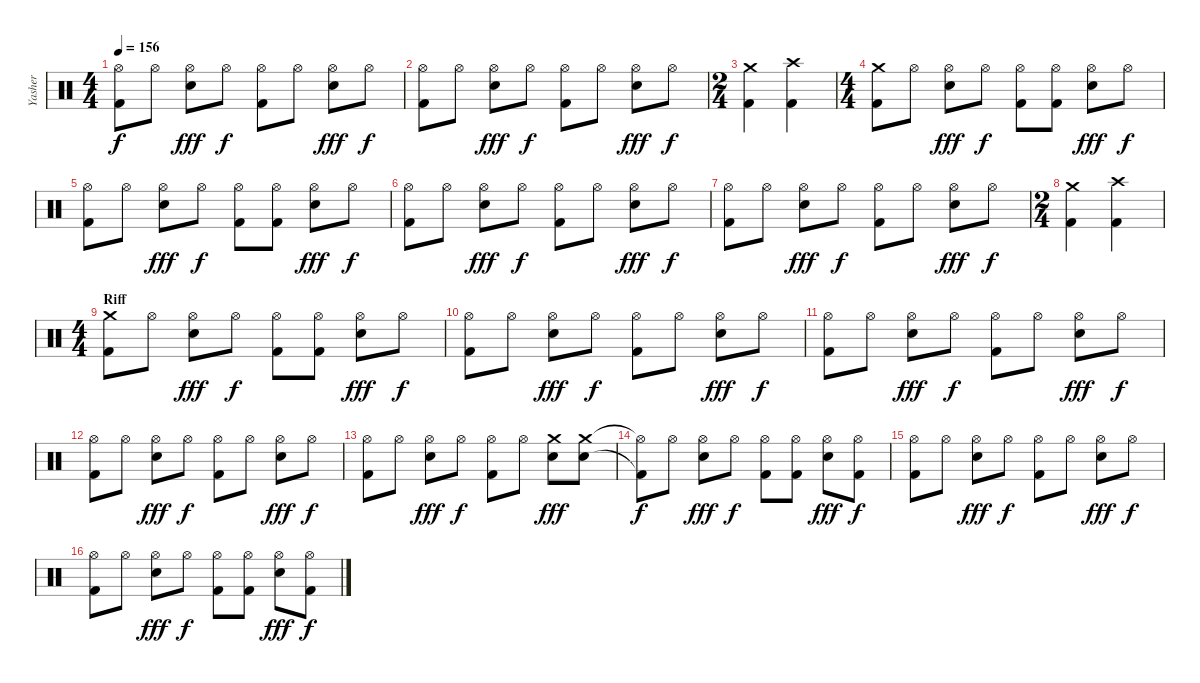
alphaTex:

\track ("Yasher" "Yasher") {instrument percussion}
\staff {score}
\articulation defaults
\ts (4 4)
\tempo 156
\clef neutral
\ks c
("Hi-Hat (open)" "Kick (hit) 2").8{dy f} "Hi-Hat (open)".8 ("Hi-Hat (open)" "Electric Snare (hit)").8{dy fff} "Hi-Hat (open)".8{dy f} ("Hi-Hat (open)" "Kick (hit) 2").8 "Hi-Hat (open)".8 ("Hi-Hat (open)" "Electric Snare (hit)").8{dy fff} "Hi-Hat (open)".8{dy f} |
("Hi-Hat (open)" "Kick (hit) 2").8 "Hi-Hat (open)".8 ("Hi-Hat (open)" "Electric Snare (hit)").8{dy fff} "Hi-Hat (open)".8{dy f} ("Hi-Hat (open)" "Kick (hit) 2").8 "Hi-Hat (open)".8 ("Hi-Hat (open)" "Electric Snare (hit)").8{dy fff} "Hi-Hat (open)".8{dy f} |
\ts (2 4)
("Crash medium (hit)" "Kick (hit) 2").4 ("Crash high (hit)" "Kick (hit) 2").4 |
\ts (4 4)
("Crash medium (hit)" "Kick (hit) 2").8 "Hi-Hat (open)".8 ("Hi-Hat (open)" "Electric Snare (hit)").8{dy fff} "Hi-Hat (open)".8{dy f} ("Hi-Hat (open)" "Kick (hit) 2").8 ("Hi-Hat (open)" "Kick (hit) 2").8 ("Hi-Hat (open)" "Electric Snare (hit)").8{dy fff} "Hi-Hat (open)".8{dy f} |
("Hi-Hat (open)" "Kick (hit) 2").8 "Hi-Hat (open)".8 ("Hi-Hat (open)" "Electric Snare (hit)").8{dy fff} "Hi-Hat (open)".8{dy f} ("Hi-Hat (open)" "Kick (hit) 2").8 ("Hi-Hat (open)" "Kick (hit) 2").8 ("Hi-Hat (open)" "Electric Snare (hit)").8{dy fff} "Hi-Hat (open)".8{dy f} |
("Hi-Hat (open)" "Kick (hit) 2").8 "Hi-Hat (open)".8 ("Hi-Hat (open)" "Electric Snare (hit)").8{dy fff} "Hi-Hat (open)".8{dy f} ("Hi-Hat (open)" "Kick (hit) 2").8 "Hi-Hat (open)".8 ("Hi-Hat (open)" "Electric Snare (hit)").8{dy fff} "Hi-Hat (open)".8{dy f} |
("Hi-Hat (open)" "Kick (hit) 2").8 "Hi-Hat (open)".8 ("Hi-Hat (open)" "Electric Snare (hit)").8{dy fff} "Hi-Hat (open)".8{dy f} ("Hi-Hat (open)" "Kick (hit) 2").8 "Hi-Hat (open)".8 ("Hi-Hat (open)" "Electric Snare (hit)").8{dy fff} "Hi-Hat (open)".8{dy f} |
\ts (2 4)
("Crash medium (hit)" "Kick (hit) 2").4 ("Crash high (hit)" "Kick (hit) 2").4 |
\ts (4 4)
\section ("" "Riff")
("Crash medium (hit)" "Kick (hit) 2").8 "Hi-Hat (open)".8 ("Hi-Hat (open)" "Electric Snare (hit)").8{dy fff} "Hi-Hat (open)".8{dy f} ("Hi-Hat (open)" "Kick (hit) 2").8 ("Hi-Hat (open)" "Kick (hit) 2").8 ("Hi-Hat (open)" "Electric Snare (hit)").8{dy fff} "Hi-Hat (open)".8{dy f} |
("Hi-Hat (open)" "Kick (hit) 2").8 "Hi-Hat (open)".8 ("Hi-Hat (open)" "Electric Snare (hit)").8{dy fff} "Hi-Hat (open)".8{dy f} ("Hi-Hat (open)" "Kick (hit) 2").8 "Hi-Hat (open)".8 ("Hi-Hat (open)" "Electric Snare (hit)").8{dy fff} "Hi-Hat (open)".8{dy f} |
("Hi-Hat (open)" "Kick (hit) 2").8 "Hi-Hat (open)".8 ("Hi-Hat (open)" "Electric Snare (hit)").8{dy fff} "Hi-Hat (open)".8{dy f} ("Hi-Hat (open)" "Kick (hit) 2").8 "Hi-Hat (open)".8 ("Hi-Hat (open)" "Electric Snare (hit)").8{dy fff} "Hi-Hat (open)".8{dy f} |
("Hi-Hat (open)" "Kick (hit) 2").8 "Hi-Hat (open)".8 ("Hi-Hat (open)" "Electric Snare (hit)").8{dy fff} "Hi-Hat (open)".8{dy f} ("Hi-Hat (open)" "Kick (hit) 2").8 "Hi-Hat (open)".8 ("Hi-Hat (open)" "Electric Snare (hit)").8{dy fff} "Hi-Hat (open)".8{dy f} |
("Hi-Hat (open)" "Kick (hit) 2").8 "Hi-Hat (open)".8 ("Hi-Hat (open)" "Electric Snare (hit)").8{dy fff} "Hi-Hat (open)".8{dy f} ("Hi-Hat (open)" "Kick (hit) 2").8 "Hi-Hat (open)".8 ("Crash medium (hit)" "Electric Snare (hit)").8{dy fff} ("Crash medium (hit)" "Electric Snare (hit)").8 |
("Hi-Hat (open)"{t} "Kick (hit) 2"{t}).8{dy f} "Hi-Hat (open)".8 ("Hi-Hat (open)" "Electric Snare (hit)").8{dy fff} "Hi-Hat (open)".8{dy f} ("Hi-Hat (open)" "Kick (hit) 2").8 ("Hi-Hat (open)" "Kick (hit) 2").8 ("Hi-Hat (open)" "Electric Snare (hit)").8{dy fff} ("Hi-Hat (open)" "Kick (hit) 2").8{dy f} |
("Hi-Hat (open)" "Kick (hit) 2").8 "Hi-Hat (open)".8 ("Hi-Hat (open)" "Electric Snare (hit)").8{dy fff} "Hi-Hat (open)".8{dy f} ("Hi-Hat (open)" "Kick (hit) 2").8 "Hi-Hat (open)".8 ("Hi-Hat (open)" "Electric Snare (hit)").8{dy fff} "Hi-Hat (open)".8{dy f} |
("Hi-Hat (open)" "Kick (hit) 2").8 "Hi-Hat (open)".8 ("Hi-Hat (open)" "Electric Snare (hit)").8{dy fff} "Hi-Hat (open)".8{dy f} ("Hi-Hat (open)" "Kick (hit) 2").8 ("Hi-Hat (open)" "Kick (hit) 2").8 ("Hi-Hat (open)" "Electric Snare (hit)").8{dy fff} ("Hi-Hat (open)" "Kick (hit) 2").8{dy f}
